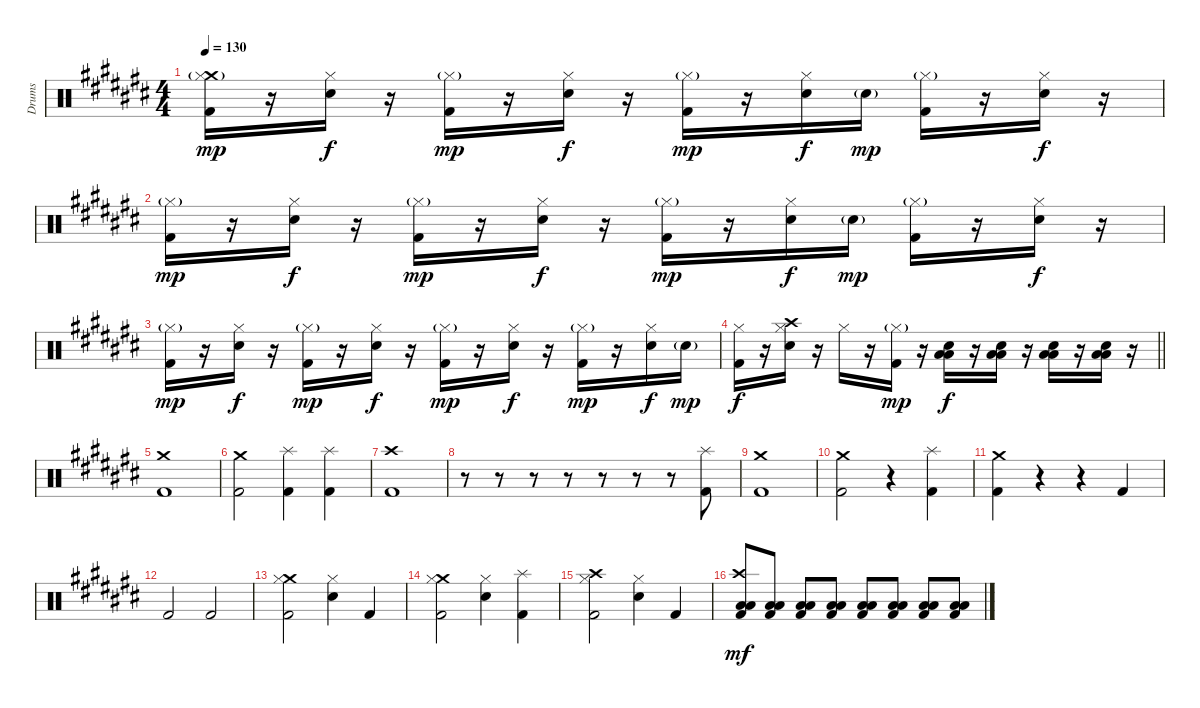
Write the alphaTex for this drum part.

\track ("Drums" "Drums") {instrument percussion}
\staff {score}
\articulation defaults
\ts (4 4)
\tempo 130
\clef neutral
\ks a#minor
("Crash medium (hit)" "Hi-Hat (closed)"{g} "Kick (hit) 2").16{dy mp} r.16 ("Hi-Hat (closed)" "Electric Snare (hit)").16{dy f} r.16 ("Hi-Hat (closed)"{g} "Kick (hit) 2").16{dy mp} r.16 ("Hi-Hat (closed)" "Electric Snare (hit)").16{dy f} r.16 ("Hi-Hat (closed)"{g} "Kick (hit) 2").16{dy mp} r.16 ("Hi-Hat (closed)" "Electric Snare (hit)").16{dy f} "Electric Snare (hit)"{g}.16{dy mp} ("Hi-Hat (closed)"{g} "Kick (hit) 2").16 r.16 ("Hi-Hat (closed)" "Electric Snare (hit)").16{dy f} r.16 |
("Hi-Hat (closed)"{g} "Kick (hit) 2").16{dy mp} r.16 ("Hi-Hat (closed)" "Electric Snare (hit)").16{dy f} r.16 ("Hi-Hat (closed)"{g} "Kick (hit) 2").16{dy mp} r.16 ("Hi-Hat (closed)" "Electric Snare (hit)").16{dy f} r.16 ("Hi-Hat (closed)"{g} "Kick (hit) 2").16{dy mp} r.16 ("Hi-Hat (closed)" "Electric Snare (hit)").16{dy f} "Electric Snare (hit)"{g}.16{dy mp} ("Hi-Hat (closed)"{g} "Kick (hit) 2").16 r.16 ("Hi-Hat (closed)" "Electric Snare (hit)").16{dy f} r.16 |
("Hi-Hat (closed)"{g} "Kick (hit) 2").16{dy mp} r.16 ("Hi-Hat (closed)" "Electric Snare (hit)").16{dy f} r.16 ("Hi-Hat (closed)"{g} "Kick (hit) 2").16{dy mp} r.16 ("Hi-Hat (closed)" "Electric Snare (hit)").16{dy f} r.16 ("Hi-Hat (closed)"{g} "Kick (hit) 2").16{dy mp} r.16 ("Hi-Hat (closed)" "Electric Snare (hit)").16{dy f} r.16 ("Hi-Hat (closed)"{g} "Kick (hit) 2").16{dy mp} r.16 ("Hi-Hat (closed)" "Electric Snare (hit)").16{dy f} "Electric Snare (hit)"{g}.16{dy mp} |
\barLineRight lightlight
("Hi-Hat (closed)" "Kick (hit) 2").16{dy f} r.16 ("Crash high (hit)" "Hi-Hat (closed)" "Electric Snare (hit)").16 r.16 "Hi-Hat (closed)".16 r.16 ("Hi-Hat (closed)"{g} "Kick (hit) 2").16{dy mp} r.16 ("Low Floor Tom (hit)" "Low Tom (hit)" "Electric Snare (hit)").16{dy f} r.16 ("Low Floor Tom (hit)" "Low Tom (hit)" "Electric Snare (hit)").16 r.16 ("Low Floor Tom (hit)" "Low Tom (hit)" "Electric Snare (hit)").16 r.16 ("Low Floor Tom (hit)" "Low Tom (hit)" "Electric Snare (hit)").16 r.16 |
\section ("" "")
("Crash medium (hit)" "Kick (hit) 2").1 |
("Crash medium (hit)" "Kick (hit) 2").2 ("Splash (hit)" "Kick (hit) 2").4 ("Splash (hit)" "Kick (hit) 2").4 |
("Crash high (hit)" "Kick (hit) 2").1 |
r.8 r.8 r.8 r.8 r.8 r.8 r.8 ("Splash (hit)" "Kick (hit) 2").8 |
("Crash medium (hit)" "Kick (hit) 2").1 |
("Crash medium (hit)" "Kick (hit) 2").2 r.4 ("Splash (hit)" "Kick (hit) 2").4 |
("Crash medium (hit)" "Kick (hit) 2").4 r.4 r.4 "Kick (hit) 2".4 |
"Kick (hit) 2".2 "Kick (hit) 2".2 |
("Crash medium (hit)" "Hi-Hat (closed)" "Kick (hit) 2").2 ("Hi-Hat (closed)" "Electric Snare (hit)").4 "Kick (hit) 2".4 |
("Crash medium (hit)" "Hi-Hat (closed)" "Kick (hit) 2").2 ("Hi-Hat (closed)" "Electric Snare (hit)").4 ("Splash (hit)" "Kick (hit) 2").4 |
("Crash high (hit)" "Hi-Hat (closed)" "Kick (hit) 2").2 ("Hi-Hat (closed)" "Electric Snare (hit)").4 "Kick (hit) 2".4 |
("Crash high (hit)" "Low Tom (hit)" "Low Floor Tom (hit)" "Kick (hit) 2").8{dy mf} ("Low Tom (hit)" "Low Floor Tom (hit)" "Kick (hit) 2").8 ("Low Tom (hit)" "Low Floor Tom (hit)" "Kick (hit) 2").8 ("Low Tom (hit)" "Low Floor Tom (hit)" "Kick (hit) 2").8 ("Low Tom (hit)" "Low Floor Tom (hit)" "Kick (hit) 2").8 ("Low Tom (hit)" "Low Floor Tom (hit)" "Kick (hit) 2").8 ("Low Tom (hit)" "Low Floor Tom (hit)" "Kick (hit) 2").8 ("Low Tom (hit)" "Low Floor Tom (hit)" "Kick (hit) 2").8
